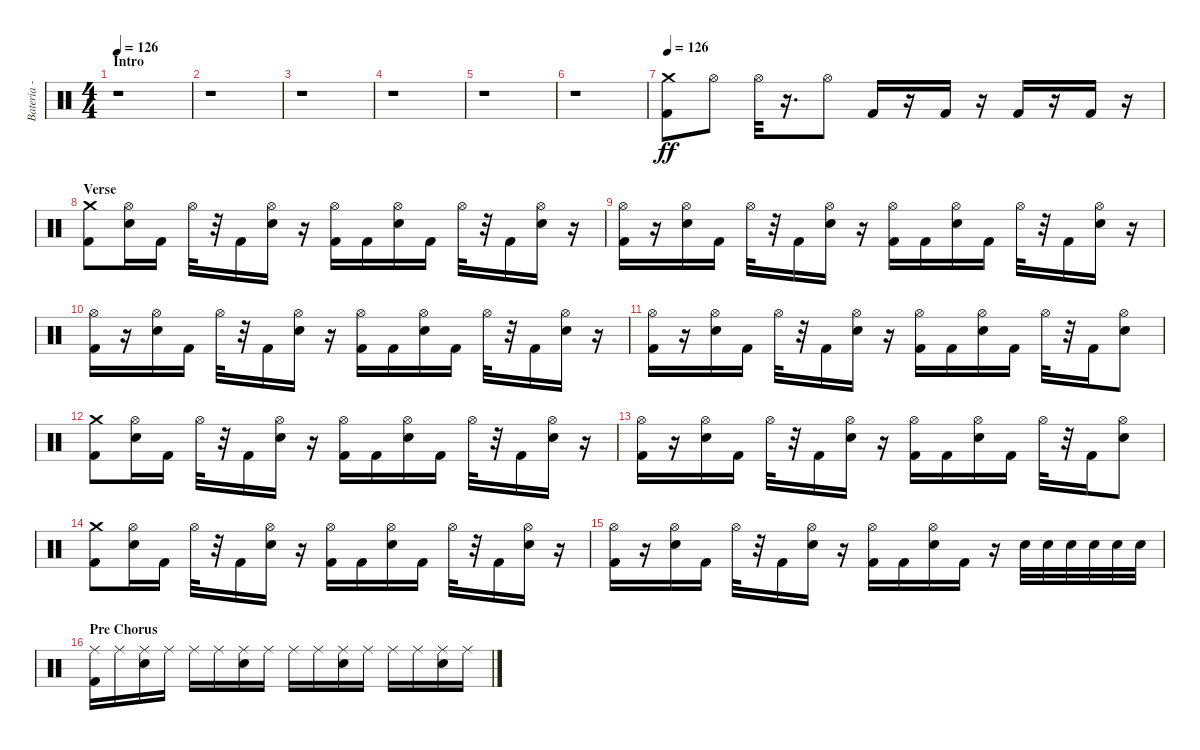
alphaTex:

\track ("Bateria - Larzon" "Bateria - ") {instrument percussion}
\staff {score}
\articulation defaults
\ts (4 4)
\section ("" "Intro")
\tempo 126
\tempo 145
\tempo 126
\clef neutral
\ks c
r.1{dy ff} |
r.1 |
r.1 |
r.1 |
r.1 |
r.1 |
\tempo 126
("Crash medium (hit)" "Kick (hit) 2").8 "Hi-Hat (open)".8 "Hi-Hat (open)".32 r.16{d} "Hi-Hat (open)".8 "Kick (hit) 2".16 r.16 "Kick (hit) 2".16 r.16 "Kick (hit) 2".16 r.16 "Kick (hit) 2".16 r.16 |
\section ("" "Verse")
("Kick (hit) 2" "Crash medium (hit)").8 ("Electric Snare (hit)" "Hi-Hat (open)").16 "Kick (hit) 2".16 "Hi-Hat (open)".32 r.32 "Kick (hit) 2".16 ("Electric Snare (hit)" "Hi-Hat (open)").16 r.16 ("Kick (hit) 2" "Hi-Hat (open)").16 "Kick (hit) 2".16 ("Electric Snare (hit)" "Hi-Hat (open)").16 "Kick (hit) 2".16 "Hi-Hat (open)".32 r.32 "Kick (hit) 2".16 ("Electric Snare (hit)" "Hi-Hat (open)").16 r.16 |
("Kick (hit) 2" "Hi-Hat (open)").16 r.16 ("Electric Snare (hit)" "Hi-Hat (open)").16 "Kick (hit) 2".16 "Hi-Hat (open)".32 r.32 "Kick (hit) 2".16 ("Electric Snare (hit)" "Hi-Hat (open)").16 r.16 ("Kick (hit) 2" "Hi-Hat (open)").16 "Kick (hit) 2".16 ("Electric Snare (hit)" "Hi-Hat (open)").16 "Kick (hit) 2".16 "Hi-Hat (open)".32 r.32 "Kick (hit) 2".16 ("Electric Snare (hit)" "Hi-Hat (open)").16 r.16 |
("Kick (hit) 2" "Hi-Hat (open)").16 r.16 ("Electric Snare (hit)" "Hi-Hat (open)").16 "Kick (hit) 2".16 "Hi-Hat (open)".32 r.32 "Kick (hit) 2".16 ("Electric Snare (hit)" "Hi-Hat (open)").16 r.16 ("Kick (hit) 2" "Hi-Hat (open)").16 "Kick (hit) 2".16 ("Electric Snare (hit)" "Hi-Hat (open)").16 "Kick (hit) 2".16 "Hi-Hat (open)".32 r.32 "Kick (hit) 2".16 ("Electric Snare (hit)" "Hi-Hat (open)").16 r.16 |
("Kick (hit) 2" "Hi-Hat (open)").16 r.16 ("Electric Snare (hit)" "Hi-Hat (open)").16 "Kick (hit) 2".16 "Hi-Hat (open)".32 r.32 "Kick (hit) 2".16 ("Electric Snare (hit)" "Hi-Hat (open)").16 r.16 ("Kick (hit) 2" "Hi-Hat (open)").16 "Kick (hit) 2".16 ("Electric Snare (hit)" "Hi-Hat (open)").16 "Kick (hit) 2".16 "Hi-Hat (open)".32 r.32 "Kick (hit) 2".16 ("Electric Snare (hit)" "Hi-Hat (open)").8 |
("Kick (hit) 2" "Crash medium (hit)").8 ("Electric Snare (hit)" "Hi-Hat (open)").16 "Kick (hit) 2".16 "Hi-Hat (open)".32 r.32 "Kick (hit) 2".16 ("Electric Snare (hit)" "Hi-Hat (open)").16 r.16 ("Kick (hit) 2" "Hi-Hat (open)").16 "Kick (hit) 2".16 ("Electric Snare (hit)" "Hi-Hat (open)").16 "Kick (hit) 2".16 "Hi-Hat (open)".32 r.32 "Kick (hit) 2".16 ("Electric Snare (hit)" "Hi-Hat (open)").16 r.16 |
("Kick (hit) 2" "Hi-Hat (open)").16 r.16 ("Electric Snare (hit)" "Hi-Hat (open)").16 "Kick (hit) 2".16 "Hi-Hat (open)".32 r.32 "Kick (hit) 2".16 ("Electric Snare (hit)" "Hi-Hat (open)").16 r.16 ("Kick (hit) 2" "Hi-Hat (open)").16 "Kick (hit) 2".16 ("Electric Snare (hit)" "Hi-Hat (open)").16 "Kick (hit) 2".16 "Hi-Hat (open)".32 r.32 "Kick (hit) 2".16 ("Electric Snare (hit)" "Hi-Hat (open)").8 |
("Kick (hit) 2" "Crash medium (hit)").8 ("Electric Snare (hit)" "Hi-Hat (open)").16 "Kick (hit) 2".16 "Hi-Hat (open)".32 r.32 "Kick (hit) 2".16 ("Electric Snare (hit)" "Hi-Hat (open)").16 r.16 ("Kick (hit) 2" "Hi-Hat (open)").16 "Kick (hit) 2".16 ("Electric Snare (hit)" "Hi-Hat (open)").16 "Kick (hit) 2".16 "Hi-Hat (open)".32 r.32 "Kick (hit) 2".16 ("Electric Snare (hit)" "Hi-Hat (open)").16 r.16 |
("Kick (hit) 2" "Hi-Hat (open)").16 r.16 ("Electric Snare (hit)" "Hi-Hat (open)").16 "Kick (hit) 2".16 "Hi-Hat (open)".32 r.32 "Kick (hit) 2".16 ("Electric Snare (hit)" "Hi-Hat (open)").16 r.16 ("Kick (hit) 2" "Hi-Hat (open)").16 "Kick (hit) 2".16 ("Electric Snare (hit)" "Hi-Hat (open)").16 "Kick (hit) 2".16 r.16 "Electric Snare (hit)".32 "Electric Snare (hit)".32 "Electric Snare (hit)".32 "Electric Snare (hit)".32 "Electric Snare (hit)".32 "Electric Snare (hit)".32 |
\section ("" "Pre Chorus")
("Kick (hit) 2" "Ride (middle)").16 "Ride (middle)".16 ("Electric Snare (hit)" "Ride (middle)").16 "Ride (middle)".16 "Ride (middle)".16 "Ride (middle)".16 ("Electric Snare (hit)" "Ride (middle)").16 "Ride (middle)".16 "Ride (middle)".16 "Ride (middle)".16 ("Electric Snare (hit)" "Ride (middle)").16 "Ride (middle)".16 "Ride (middle)".16 "Ride (middle)".16 ("Electric Snare (hit)" "Ride (middle)").16 "Ride (middle)".16
